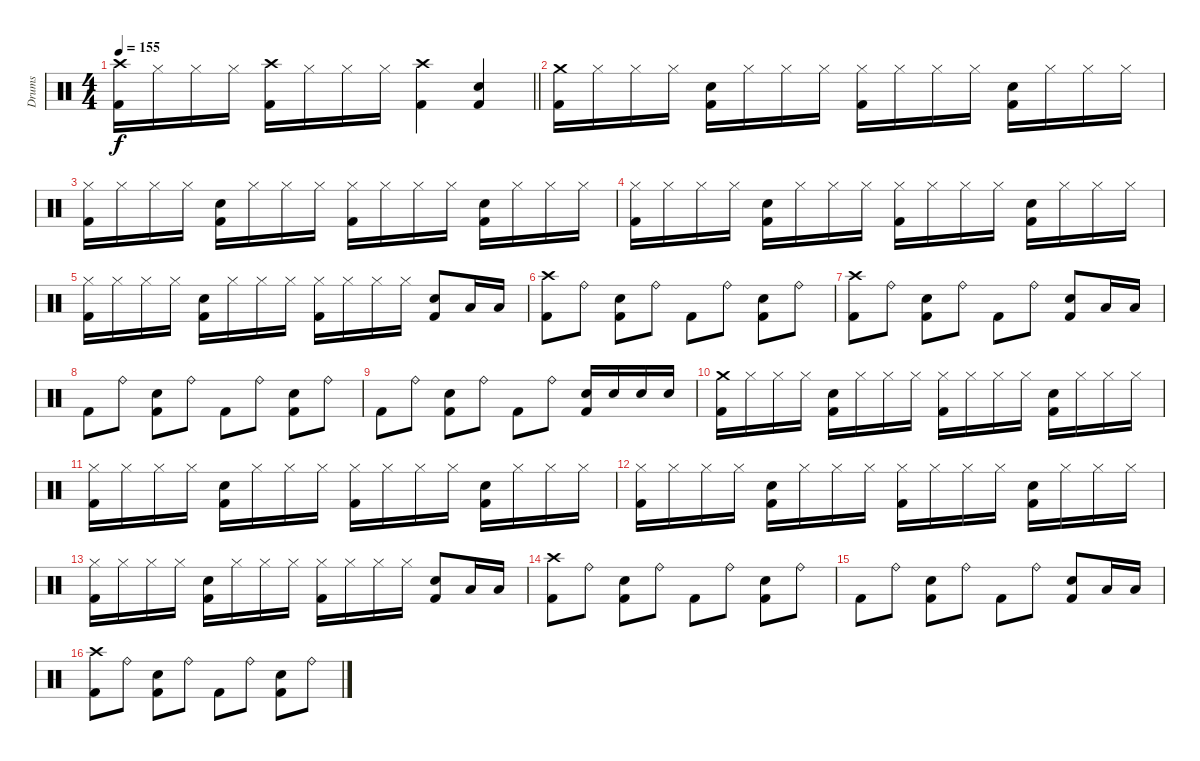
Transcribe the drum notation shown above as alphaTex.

\track ("Drums" "Drums") {instrument percussion}
\staff {score}
\articulation defaults
\ts (4 4)
\tempo 155
\clef neutral
\barLineRight lightlight
\ks c
("Crash high (hit)" "Kick (hit) 2").16{dy f} "Hi-Hat (closed)".16 "Hi-Hat (closed)".16 "Hi-Hat (closed)".16 ("Crash high (hit)" "Kick (hit) 2").16 "Hi-Hat (closed)".16 "Hi-Hat (closed)".16 "Hi-Hat (closed)".16 ("Crash high (hit)" "Kick (hit) 2").4 ("Electric Snare (hit)" "Kick (hit) 2").4 |
("Crash medium (hit)" "Kick (hit) 2").16 "Hi-Hat (closed)".16 "Hi-Hat (closed)".16 "Hi-Hat (closed)".16 ("Electric Snare (hit)" "Kick (hit) 2").16 "Hi-Hat (closed)".16 "Hi-Hat (closed)".16 "Hi-Hat (closed)".16 ("Hi-Hat (closed)" "Kick (hit) 2").16 "Hi-Hat (closed)".16 "Hi-Hat (closed)".16 "Hi-Hat (closed)".16 ("Electric Snare (hit)" "Kick (hit) 2").16 "Hi-Hat (closed)".16 "Hi-Hat (closed)".16 "Hi-Hat (closed)".16 |
("Hi-Hat (closed)" "Kick (hit) 2").16 "Hi-Hat (closed)".16 "Hi-Hat (closed)".16 "Hi-Hat (closed)".16 ("Electric Snare (hit)" "Kick (hit) 2").16 "Hi-Hat (closed)".16 "Hi-Hat (closed)".16 "Hi-Hat (closed)".16 ("Hi-Hat (closed)" "Kick (hit) 2").16 "Hi-Hat (closed)".16 "Hi-Hat (closed)".16 "Hi-Hat (closed)".16 ("Electric Snare (hit)" "Kick (hit) 2").16 "Hi-Hat (closed)".16 "Hi-Hat (closed)".16 "Hi-Hat (closed)".16 |
("Hi-Hat (closed)" "Kick (hit) 2").16 "Hi-Hat (closed)".16 "Hi-Hat (closed)".16 "Hi-Hat (closed)".16 ("Electric Snare (hit)" "Kick (hit) 2").16 "Hi-Hat (closed)".16 "Hi-Hat (closed)".16 "Hi-Hat (closed)".16 ("Hi-Hat (closed)" "Kick (hit) 2").16 "Hi-Hat (closed)".16 "Hi-Hat (closed)".16 "Hi-Hat (closed)".16 ("Electric Snare (hit)" "Kick (hit) 2").16 "Hi-Hat (closed)".16 "Hi-Hat (closed)".16 "Hi-Hat (closed)".16 |
("Hi-Hat (closed)" "Kick (hit) 2").16 "Hi-Hat (closed)".16 "Hi-Hat (closed)".16 "Hi-Hat (closed)".16 ("Electric Snare (hit)" "Kick (hit) 2").16 "Hi-Hat (closed)".16 "Hi-Hat (closed)".16 "Hi-Hat (closed)".16 ("Hi-Hat (closed)" "Kick (hit) 2").16 "Hi-Hat (closed)".16 "Hi-Hat (closed)".16 "Hi-Hat (closed)".16 ("Electric Snare (hit)" "Kick (hit) 2").8 "Low Floor Tom (hit)".16 "Low Floor Tom (hit)".16 |
("Crash high (hit)" "Kick (hit) 2").8 "Ride (bell)".8 ("Electric Snare (hit)" "Kick (hit) 2").8 "Ride (bell)".8 "Kick (hit) 2".8 "Ride (bell)".8 ("Electric Snare (hit)" "Kick (hit) 2").8 "Ride (bell)".8 |
("Crash high (hit)" "Kick (hit) 2").8 "Ride (bell)".8 ("Electric Snare (hit)" "Kick (hit) 2").8 "Ride (bell)".8 "Kick (hit) 2".8 "Ride (bell)".8 ("Electric Snare (hit)" "Kick (hit) 2").8 "Low Floor Tom (hit)".16 "Low Floor Tom (hit)".16 |
"Kick (hit) 2".8 "Ride (bell)".8 ("Electric Snare (hit)" "Kick (hit) 2").8 "Ride (bell)".8 "Kick (hit) 2".8 "Ride (bell)".8 ("Electric Snare (hit)" "Kick (hit) 2").8 "Ride (bell)".8 |
"Kick (hit) 2".8 "Ride (bell)".8 ("Electric Snare (hit)" "Kick (hit) 2").8 "Ride (bell)".8 "Kick (hit) 2".8 "Ride (bell)".8 ("Electric Snare (hit)" "Kick (hit) 2").16 "Electric Snare (hit)".16 "Electric Snare (hit)".16 "Electric Snare (hit)".16 |
("Crash medium (hit)" "Kick (hit) 2").16 "Hi-Hat (closed)".16 "Hi-Hat (closed)".16 "Hi-Hat (closed)".16 ("Electric Snare (hit)" "Kick (hit) 2").16 "Hi-Hat (closed)".16 "Hi-Hat (closed)".16 "Hi-Hat (closed)".16 ("Hi-Hat (closed)" "Kick (hit) 2").16 "Hi-Hat (closed)".16 "Hi-Hat (closed)".16 "Hi-Hat (closed)".16 ("Electric Snare (hit)" "Kick (hit) 2").16 "Hi-Hat (closed)".16 "Hi-Hat (closed)".16 "Hi-Hat (closed)".16 |
("Hi-Hat (closed)" "Kick (hit) 2").16 "Hi-Hat (closed)".16 "Hi-Hat (closed)".16 "Hi-Hat (closed)".16 ("Electric Snare (hit)" "Kick (hit) 2").16 "Hi-Hat (closed)".16 "Hi-Hat (closed)".16 "Hi-Hat (closed)".16 ("Hi-Hat (closed)" "Kick (hit) 2").16 "Hi-Hat (closed)".16 "Hi-Hat (closed)".16 "Hi-Hat (closed)".16 ("Electric Snare (hit)" "Kick (hit) 2").16 "Hi-Hat (closed)".16 "Hi-Hat (closed)".16 "Hi-Hat (closed)".16 |
("Hi-Hat (closed)" "Kick (hit) 2").16 "Hi-Hat (closed)".16 "Hi-Hat (closed)".16 "Hi-Hat (closed)".16 ("Electric Snare (hit)" "Kick (hit) 2").16 "Hi-Hat (closed)".16 "Hi-Hat (closed)".16 "Hi-Hat (closed)".16 ("Hi-Hat (closed)" "Kick (hit) 2").16 "Hi-Hat (closed)".16 "Hi-Hat (closed)".16 "Hi-Hat (closed)".16 ("Electric Snare (hit)" "Kick (hit) 2").16 "Hi-Hat (closed)".16 "Hi-Hat (closed)".16 "Hi-Hat (closed)".16 |
("Hi-Hat (closed)" "Kick (hit) 2").16 "Hi-Hat (closed)".16 "Hi-Hat (closed)".16 "Hi-Hat (closed)".16 ("Electric Snare (hit)" "Kick (hit) 2").16 "Hi-Hat (closed)".16 "Hi-Hat (closed)".16 "Hi-Hat (closed)".16 ("Hi-Hat (closed)" "Kick (hit) 2").16 "Hi-Hat (closed)".16 "Hi-Hat (closed)".16 "Hi-Hat (closed)".16 ("Electric Snare (hit)" "Kick (hit) 2").8 "Low Floor Tom (hit)".16 "Low Floor Tom (hit)".16 |
("Crash high (hit)" "Kick (hit) 2").8 "Ride (bell)".8 ("Electric Snare (hit)" "Kick (hit) 2").8 "Ride (bell)".8 "Kick (hit) 2".8 "Ride (bell)".8 ("Electric Snare (hit)" "Kick (hit) 2").8 "Ride (bell)".8 |
"Kick (hit) 2".8 "Ride (bell)".8 ("Electric Snare (hit)" "Kick (hit) 2").8 "Ride (bell)".8 "Kick (hit) 2".8 "Ride (bell)".8 ("Electric Snare (hit)" "Kick (hit) 2").8 "Low Floor Tom (hit)".16 "Low Floor Tom (hit)".16 |
("Crash high (hit)" "Kick (hit) 2").8 "Ride (bell)".8 ("Electric Snare (hit)" "Kick (hit) 2").8 "Ride (bell)".8 "Kick (hit) 2".8 "Ride (bell)".8 ("Electric Snare (hit)" "Kick (hit) 2").8 "Ride (bell)".8
